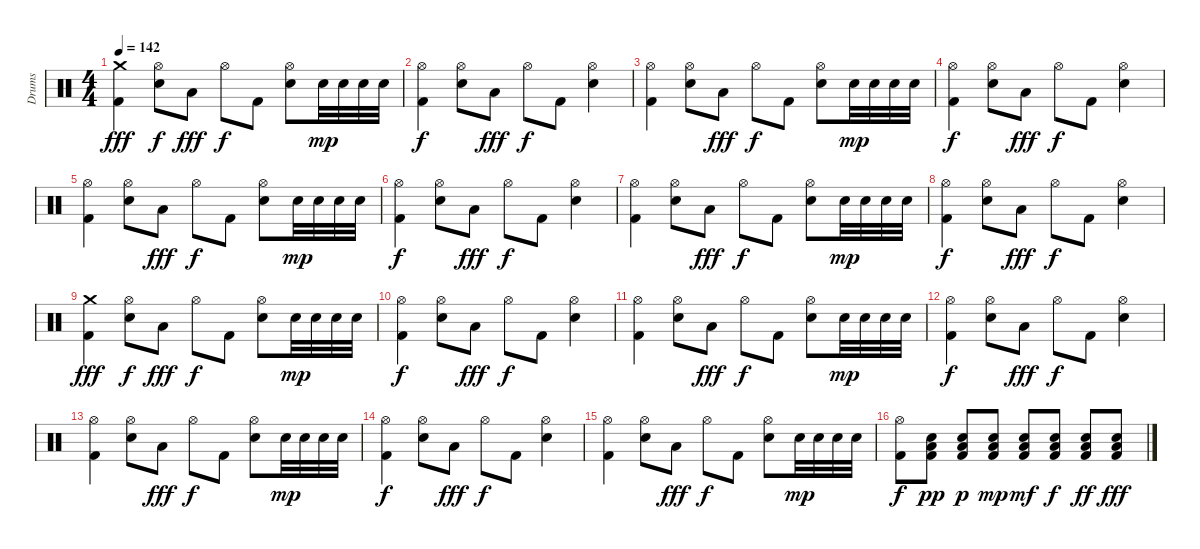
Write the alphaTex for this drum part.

\track ("Drums" "Drums") {instrument percussion}
\staff {score}
\articulation defaults
\ts (4 4)
\tempo 142
\clef neutral
\ks c
("Crash medium (hit)" "Kick (hit) 2").4{dy fff volume 11} ("Hi-Hat (open)" "Snare (hit) 2").8{dy f} "Low Tom (hit)".8{dy fff} "Hi-Hat (open)".8{dy f} "Kick (hit) 2".8 ("Hi-Hat (open)" "Snare (hit) 2").8 "Snare (hit) 2".32{dy mp} "Snare (hit) 2".32 "Snare (hit) 2".32 "Snare (hit) 2".32 |
("Hi-Hat (open)" "Kick (hit) 2").4{dy f volume 11} ("Hi-Hat (open)" "Snare (hit) 2").8 "Low Tom (hit)".8{dy fff} "Hi-Hat (open)".8{dy f} "Kick (hit) 2".8 ("Hi-Hat (open)" "Snare (hit) 2").4 |
("Hi-Hat (open)" "Kick (hit) 2").4{volume 11} ("Hi-Hat (open)" "Snare (hit) 2").8 "Low Tom (hit)".8{dy fff} "Hi-Hat (open)".8{dy f} "Kick (hit) 2".8 ("Hi-Hat (open)" "Snare (hit) 2").8 "Snare (hit) 2".32{dy mp} "Snare (hit) 2".32 "Snare (hit) 2".32 "Snare (hit) 2".32 |
("Hi-Hat (open)" "Kick (hit) 2").4{dy f volume 11} ("Hi-Hat (open)" "Snare (hit) 2").8 "Low Tom (hit)".8{dy fff} "Hi-Hat (open)".8{dy f} "Kick (hit) 2".8 ("Hi-Hat (open)" "Snare (hit) 2").4 |
("Hi-Hat (open)" "Kick (hit) 2").4{volume 11} ("Hi-Hat (open)" "Snare (hit) 2").8 "Low Tom (hit)".8{dy fff} "Hi-Hat (open)".8{dy f} "Kick (hit) 2".8 ("Hi-Hat (open)" "Snare (hit) 2").8 "Snare (hit) 2".32{dy mp} "Snare (hit) 2".32 "Snare (hit) 2".32 "Snare (hit) 2".32 |
("Hi-Hat (open)" "Kick (hit) 2").4{dy f volume 11} ("Hi-Hat (open)" "Snare (hit) 2").8 "Low Tom (hit)".8{dy fff} "Hi-Hat (open)".8{dy f} "Kick (hit) 2".8 ("Hi-Hat (open)" "Snare (hit) 2").4 |
("Hi-Hat (open)" "Kick (hit) 2").4{volume 11} ("Hi-Hat (open)" "Snare (hit) 2").8 "Low Tom (hit)".8{dy fff} "Hi-Hat (open)".8{dy f} "Kick (hit) 2".8 ("Hi-Hat (open)" "Snare (hit) 2").8 "Snare (hit) 2".32{dy mp} "Snare (hit) 2".32 "Snare (hit) 2".32 "Snare (hit) 2".32 |
("Hi-Hat (open)" "Kick (hit) 2").4{dy f volume 11} ("Hi-Hat (open)" "Snare (hit) 2").8 "Low Tom (hit)".8{dy fff} "Hi-Hat (open)".8{dy f} "Kick (hit) 2".8 ("Hi-Hat (open)" "Snare (hit) 2").4 |
("Crash medium (hit)" "Kick (hit) 2").4{dy fff volume 11} ("Hi-Hat (open)" "Snare (hit) 2").8{dy f} "Low Tom (hit)".8{dy fff} "Hi-Hat (open)".8{dy f} "Kick (hit) 2".8 ("Hi-Hat (open)" "Snare (hit) 2").8 "Snare (hit) 2".32{dy mp} "Snare (hit) 2".32 "Snare (hit) 2".32 "Snare (hit) 2".32 |
("Hi-Hat (open)" "Kick (hit) 2").4{dy f volume 11} ("Hi-Hat (open)" "Snare (hit) 2").8 "Low Tom (hit)".8{dy fff} "Hi-Hat (open)".8{dy f} "Kick (hit) 2".8 ("Hi-Hat (open)" "Snare (hit) 2").4 |
("Hi-Hat (open)" "Kick (hit) 2").4{volume 11} ("Hi-Hat (open)" "Snare (hit) 2").8 "Low Tom (hit)".8{dy fff} "Hi-Hat (open)".8{dy f} "Kick (hit) 2".8 ("Hi-Hat (open)" "Snare (hit) 2").8 "Snare (hit) 2".32{dy mp} "Snare (hit) 2".32 "Snare (hit) 2".32 "Snare (hit) 2".32 |
("Hi-Hat (open)" "Kick (hit) 2").4{dy f volume 11} ("Hi-Hat (open)" "Snare (hit) 2").8 "Low Tom (hit)".8{dy fff} "Hi-Hat (open)".8{dy f} "Kick (hit) 2".8 ("Hi-Hat (open)" "Snare (hit) 2").4 |
("Hi-Hat (open)" "Kick (hit) 2").4{volume 11} ("Hi-Hat (open)" "Snare (hit) 2").8 "Low Tom (hit)".8{dy fff} "Hi-Hat (open)".8{dy f} "Kick (hit) 2".8 ("Hi-Hat (open)" "Snare (hit) 2").8 "Snare (hit) 2".32{dy mp} "Snare (hit) 2".32 "Snare (hit) 2".32 "Snare (hit) 2".32 |
("Hi-Hat (open)" "Kick (hit) 2").4{dy f volume 11} ("Hi-Hat (open)" "Snare (hit) 2").8 "Low Tom (hit)".8{dy fff} "Hi-Hat (open)".8{dy f} "Kick (hit) 2".8 ("Hi-Hat (open)" "Snare (hit) 2").4 |
("Hi-Hat (open)" "Kick (hit) 2").4{volume 11} ("Hi-Hat (open)" "Snare (hit) 2").8 "Low Tom (hit)".8{dy fff} "Hi-Hat (open)".8{dy f} "Kick (hit) 2".8 ("Hi-Hat (open)" "Snare (hit) 2").8 "Snare (hit) 2".32{dy mp} "Snare (hit) 2".32 "Snare (hit) 2".32 "Snare (hit) 2".32 |
("Hi-Hat (open)" "Kick (hit) 2").8{dy f volume 11} ("Low Tom (hit)" "Snare (hit) 2" "Kick (hit) 2").8{dy pp} ("Low Tom (hit)" "Snare (hit) 2" "Kick (hit) 2").8{dy p} ("Low Tom (hit)" "Snare (hit) 2" "Kick (hit) 2").8{dy mp} ("Low Tom (hit)" "Snare (hit) 2" "Kick (hit) 2").8{dy mf} ("Low Tom (hit)" "Snare (hit) 2" "Kick (hit) 2").8{dy f} ("Low Tom (hit)" "Snare (hit) 2" "Kick (hit) 2").8{dy ff} ("Low Tom (hit)" "Snare (hit) 2" "Kick (hit) 2").8{dy fff}
